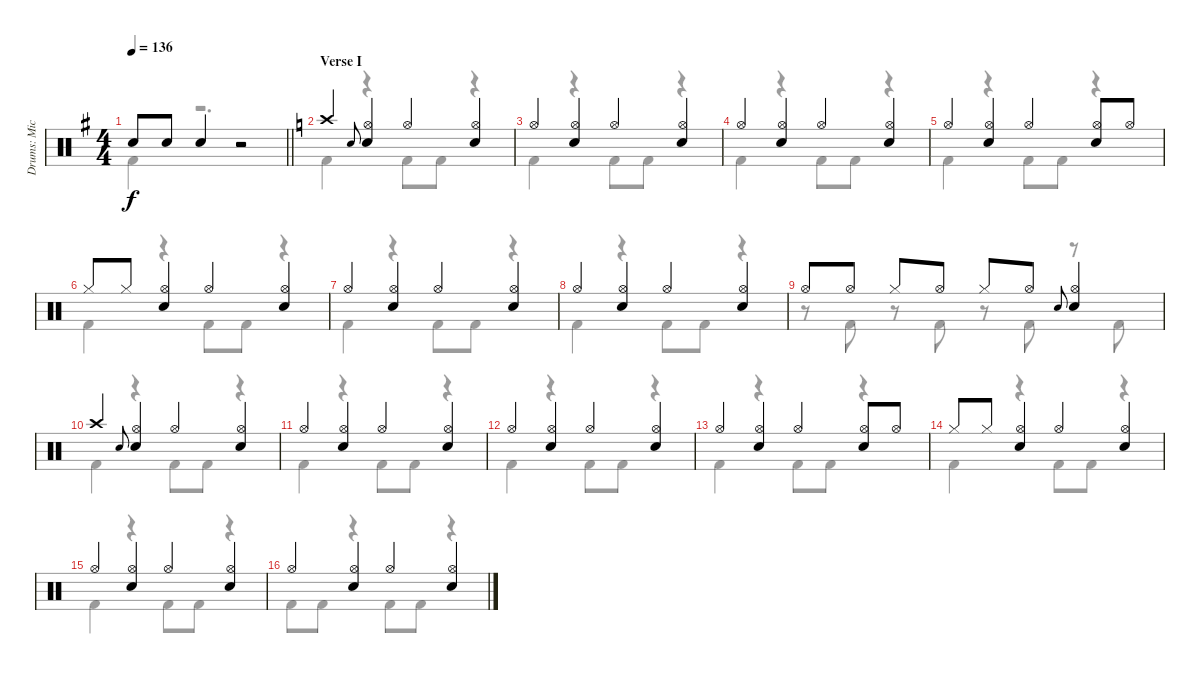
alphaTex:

\track ("Drums: Mick" "Drums: Mic") {instrument percussion}
\staff {score}
\articulation defaults
\voice
\ts (4 4)
\tempo 136
\clef neutral
\barLineRight lightlight
\ks g "Snare (hit) 2".8{dy f} "Snare (hit) 2".8 "Snare (hit) 2".4
r.2 |
\section ("" "Verse I")
\ks c "Crash high (hit)".4 "Electric Snare (hit)".8{gr onbeat}
("Hi-Hat (open)" "Snare (hit) 2").4 "Hi-Hat (open)".4 ("Hi-Hat (open)" "Snare (hit) 2").4 |
"Hi-Hat (open)".4 ("Hi-Hat (open)" "Snare (hit) 2").4 "Hi-Hat (open)".4 ("Hi-Hat (open)" "Snare (hit) 2").4 |
"Hi-Hat (open)".4 ("Hi-Hat (open)" "Snare (hit) 2").4 "Hi-Hat (open)".4 ("Hi-Hat (open)" "Snare (hit) 2").4 |
"Hi-Hat (open)".4 ("Hi-Hat (open)" "Snare (hit) 2").4 "Hi-Hat (open)".4 ("Hi-Hat (open)" "Snare (hit) 2").8 "Hi-Hat (open)".8 |
"Hi-Hat (closed)".8 "Hi-Hat (closed)".8 ("Hi-Hat (open)" "Snare (hit) 2").4 "Hi-Hat (open)".4 ("Hi-Hat (open)" "Snare (hit) 2").4 |
"Hi-Hat (open)".4 ("Hi-Hat (open)" "Snare (hit) 2").4 "Hi-Hat (open)".4 ("Hi-Hat (open)" "Snare (hit) 2").4 |
"Hi-Hat (open)".4 ("Hi-Hat (open)" "Snare (hit) 2").4 "Hi-Hat (open)".4 ("Hi-Hat (open)" "Snare (hit) 2").4 |
"Hi-Hat (open)".8 "Hi-Hat (open)".8 "Hi-Hat (closed)".8 "Hi-Hat (open)".8 "Hi-Hat (closed)".8 "Hi-Hat (open)".8 "Electric Snare (hit)".8{gr onbeat} ("Hi-Hat (open)" "Snare (hit) 2").4 |
"Crash high (hit)".4 "Electric Snare (hit)".8{gr onbeat} ("Hi-Hat (open)" "Snare (hit) 2").4 "Hi-Hat (open)".4 ("Hi-Hat (open)" "Snare (hit) 2").4 |
"Hi-Hat (open)".4 ("Hi-Hat (open)" "Snare (hit) 2").4 "Hi-Hat (open)".4 ("Hi-Hat (open)" "Snare (hit) 2").4 |
"Hi-Hat (open)".4 ("Hi-Hat (open)" "Snare (hit) 2").4 "Hi-Hat (open)".4 ("Hi-Hat (open)" "Snare (hit) 2").4 |
"Hi-Hat (open)".4 ("Hi-Hat (open)" "Snare (hit) 2").4 "Hi-Hat (open)".4 ("Hi-Hat (open)" "Snare (hit) 2").8 "Hi-Hat (open)".8 |
"Hi-Hat (closed)".8 "Hi-Hat (closed)".8 ("Hi-Hat (open)" "Snare (hit) 2").4 "Hi-Hat (open)".4 ("Hi-Hat (open)" "Snare (hit) 2").4 |
"Hi-Hat (open)".4 ("Hi-Hat (open)" "Snare (hit) 2").4 "Hi-Hat (open)".4 ("Hi-Hat (open)" "Snare (hit) 2").4 |
"Hi-Hat (open)".4 ("Hi-Hat (open)" "Snare (hit) 2").4 "Hi-Hat (open)".4 ("Hi-Hat (open)" "Snare (hit) 2").4
\voice
\clef neutral
\ottava regular
\simile none
\barLineRight lightlight
\ks g "Kick (hit) 2".4{dy f}
r.2{d} |
\ks c "Kick (hit) 2".4
r.4 "Kick (hit) 2".8 "Kick (hit) 2".8 r.4 |
"Kick (hit) 2".4 r.4 "Kick (hit) 2".8 "Kick (hit) 2".8 r.4 |
"Kick (hit) 2".4 r.4 "Kick (hit) 2".8 "Kick (hit) 2".8 r.4 |
"Kick (hit) 2".4 r.4 "Kick (hit) 2".8 "Kick (hit) 2".8 r.4 |
"Kick (hit) 2".4 r.4 "Kick (hit) 2".8 "Kick (hit) 2".8 r.4 |
"Kick (hit) 2".4 r.4 "Kick (hit) 2".8 "Kick (hit) 2".8 r.4 |
"Kick (hit) 2".4 r.4 "Kick (hit) 2".8 "Kick (hit) 2".8 r.4 |
r.8 "Kick (hit) 2".8 r.8 "Kick (hit) 2".8 r.8 "Kick (hit) 2".8 r.8 "Kick (hit) 2".8 |
"Kick (hit) 2".4 r.4 "Kick (hit) 2".8 "Kick (hit) 2".8 r.4 |
"Kick (hit) 2".4 r.4 "Kick (hit) 2".8 "Kick (hit) 2".8 r.4 |
"Kick (hit) 2".4 r.4 "Kick (hit) 2".8 "Kick (hit) 2".8 r.4 |
"Kick (hit) 2".4 r.4 "Kick (hit) 2".8 "Kick (hit) 2".8 r.4 |
"Kick (hit) 2".4 r.4 "Kick (hit) 2".8 "Kick (hit) 2".8 r.4 |
"Kick (hit) 2".4 r.4 "Kick (hit) 2".8 "Kick (hit) 2".8 r.4 |
"Kick (hit) 2".8 "Kick (hit) 2".8 r.4 "Kick (hit) 2".8 "Kick (hit) 2".8 r.4
